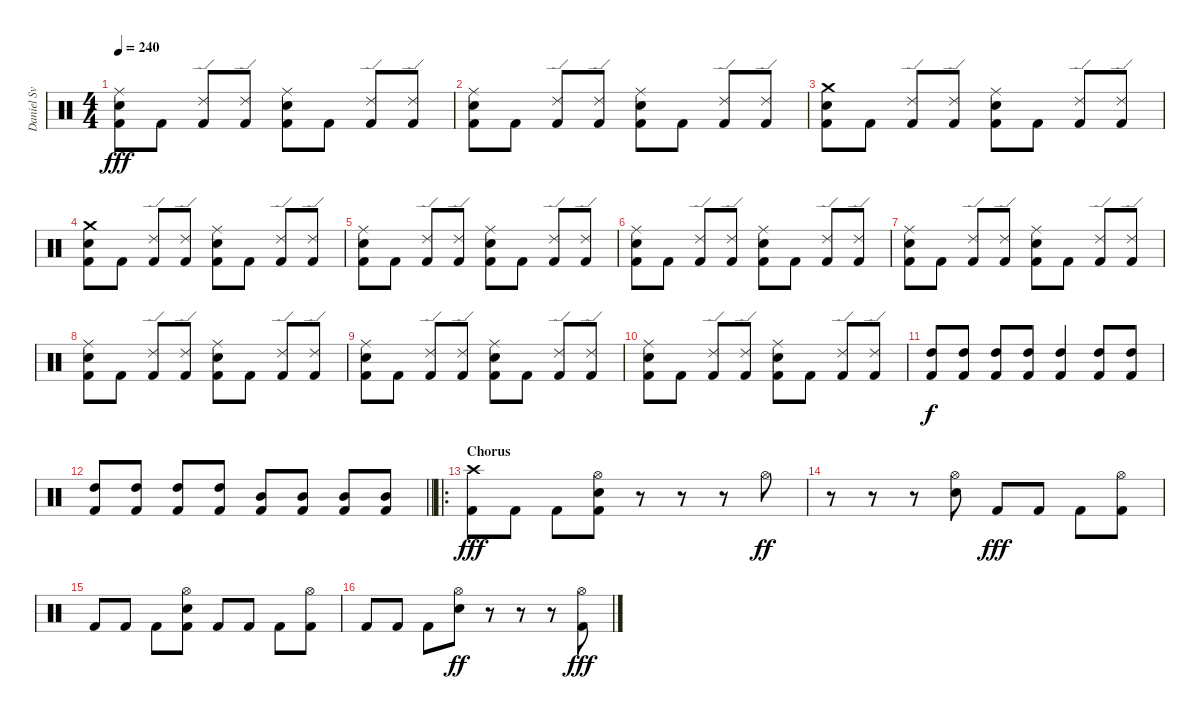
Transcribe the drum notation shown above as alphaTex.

\track (" Daniel Svensson" " Daniel Sv") {instrument percussion}
\staff {score}
\articulation defaults
\ts (4 4)
\tempo 240
\clef neutral
\ks c
("Ride (middle)" "Electric Snare (hit)" "Kick (hit) 2").8{dy fff} "Kick (hit) 2".8 ("Ride (edge) 2" "Kick (hit) 2").8 ("Ride (edge) 2" "Kick (hit) 2").8 ("Ride (middle)" "Electric Snare (hit)" "Kick (hit) 2").8 "Kick (hit) 2".8 ("Ride (edge) 2" "Kick (hit) 2").8 ("Ride (edge) 2" "Kick (hit) 2").8 |
("Ride (middle)" "Electric Snare (hit)" "Kick (hit) 2").8 "Kick (hit) 2".8 ("Ride (edge) 2" "Kick (hit) 2").8 ("Ride (edge) 2" "Kick (hit) 2").8 ("Ride (middle)" "Electric Snare (hit)" "Kick (hit) 2").8 "Kick (hit) 2".8 ("Ride (edge) 2" "Kick (hit) 2").8 ("Ride (edge) 2" "Kick (hit) 2").8 |
("Crash medium (hit)" "Electric Snare (hit)" "Kick (hit) 2").8 "Kick (hit) 2".8 ("Ride (edge) 2" "Kick (hit) 2").8 ("Ride (edge) 2" "Kick (hit) 2").8 ("Ride (middle)" "Electric Snare (hit)" "Kick (hit) 2").8 "Kick (hit) 2".8 ("Ride (edge) 2" "Kick (hit) 2").8 ("Ride (edge) 2" "Kick (hit) 2").8 |
("Crash medium (hit)" "Electric Snare (hit)" "Kick (hit) 2").8 "Kick (hit) 2".8 ("Ride (edge) 2" "Kick (hit) 2").8 ("Ride (edge) 2" "Kick (hit) 2").8 ("Ride (middle)" "Electric Snare (hit)" "Kick (hit) 2").8 "Kick (hit) 2".8 ("Ride (edge) 2" "Kick (hit) 2").8 ("Ride (edge) 2" "Kick (hit) 2").8 |
("Ride (middle)" "Electric Snare (hit)" "Kick (hit) 2").8 "Kick (hit) 2".8 ("Ride (edge) 2" "Kick (hit) 2").8 ("Ride (edge) 2" "Kick (hit) 2").8 ("Ride (middle)" "Electric Snare (hit)" "Kick (hit) 2").8 "Kick (hit) 2".8 ("Ride (edge) 2" "Kick (hit) 2").8 ("Ride (edge) 2" "Kick (hit) 2").8 |
("Ride (middle)" "Electric Snare (hit)" "Kick (hit) 2").8 "Kick (hit) 2".8 ("Ride (edge) 2" "Kick (hit) 2").8 ("Ride (edge) 2" "Kick (hit) 2").8 ("Ride (middle)" "Electric Snare (hit)" "Kick (hit) 2").8 "Kick (hit) 2".8 ("Ride (edge) 2" "Kick (hit) 2").8 ("Ride (edge) 2" "Kick (hit) 2").8 |
("Ride (middle)" "Electric Snare (hit)" "Kick (hit) 2").8 "Kick (hit) 2".8 ("Ride (edge) 2" "Kick (hit) 2").8 ("Ride (edge) 2" "Kick (hit) 2").8 ("Ride (middle)" "Electric Snare (hit)" "Kick (hit) 2").8 "Kick (hit) 2".8 ("Ride (edge) 2" "Kick (hit) 2").8 ("Ride (edge) 2" "Kick (hit) 2").8 |
("Ride (middle)" "Electric Snare (hit)" "Kick (hit) 2").8 "Kick (hit) 2".8 ("Ride (edge) 2" "Kick (hit) 2").8 ("Ride (edge) 2" "Kick (hit) 2").8 ("Ride (middle)" "Electric Snare (hit)" "Kick (hit) 2").8 "Kick (hit) 2".8 ("Ride (edge) 2" "Kick (hit) 2").8 ("Ride (edge) 2" "Kick (hit) 2").8 |
("Ride (middle)" "Electric Snare (hit)" "Kick (hit) 2").8 "Kick (hit) 2".8 ("Ride (edge) 2" "Kick (hit) 2").8 ("Ride (edge) 2" "Kick (hit) 2").8 ("Ride (middle)" "Electric Snare (hit)" "Kick (hit) 2").8 "Kick (hit) 2".8 ("Ride (edge) 2" "Kick (hit) 2").8 ("Ride (edge) 2" "Kick (hit) 2").8 |
("Ride (middle)" "Electric Snare (hit)" "Kick (hit) 2").8 "Kick (hit) 2".8 ("Ride (edge) 2" "Kick (hit) 2").8 ("Ride (edge) 2" "Kick (hit) 2").8 ("Ride (middle)" "Electric Snare (hit)" "Kick (hit) 2").8 "Kick (hit) 2".8 ("Ride (edge) 2" "Kick (hit) 2").8 ("Ride (edge) 2" "Kick (hit) 2").8 |
("High Tom (hit)" "Kick (hit) 2").8{dy f} ("High Tom (hit)" "Kick (hit) 2").8 ("High Tom (hit)" "Kick (hit) 2").8 ("High Tom (hit)" "Kick (hit) 2").8 ("High Tom (hit)" "Kick (hit) 2").4 ("High Tom (hit)" "Kick (hit) 2").8 ("High Tom (hit)" "Kick (hit) 2").8 |
\barLineRight lightlight
("High Tom (hit)" "Kick (hit) 2").8 ("High Tom (hit)" "Kick (hit) 2").8 ("High Tom (hit)" "Kick (hit) 2").8 ("High Tom (hit)" "Kick (hit) 2").8 ("Mid Tom (hit)" "Kick (hit) 2").8 ("Mid Tom (hit)" "Kick (hit) 2").8 ("Mid Tom (hit)" "Kick (hit) 2").8 ("Mid Tom (hit)" "Kick (hit) 2").8 |
\ro
\section ("" "Chorus")
("Crash high (hit)" "Kick (hit) 2").8{dy fff} "Kick (hit) 2".8 "Kick (hit) 2".8 ("Hi-Hat (open)" "Electric Snare (hit)" "Kick (hit) 2").8 r.8 r.8 r.8 "Hi-Hat (open)".8{dy ff} |
r.8 r.8 r.8 ("Hi-Hat (open)" "Electric Snare (hit)").8 "Kick (hit) 2".8{dy fff} "Kick (hit) 2".8 "Kick (hit) 2".8 ("Hi-Hat (open)" "Kick (hit) 2").8 |
"Kick (hit) 2".8 "Kick (hit) 2".8 "Kick (hit) 2".8 ("Hi-Hat (open)" "Electric Snare (hit)" "Kick (hit) 2").8 "Kick (hit) 2".8 "Kick (hit) 2".8 "Kick (hit) 2".8 ("Hi-Hat (open)" "Kick (hit) 2").8 |
"Kick (hit) 2".8 "Kick (hit) 2".8 "Kick (hit) 2".8 ("Hi-Hat (open)" "Electric Snare (hit)").8{dy ff} r.8 r.8 r.8 ("Hi-Hat (open)" "Kick (hit) 2").8{dy fff}
